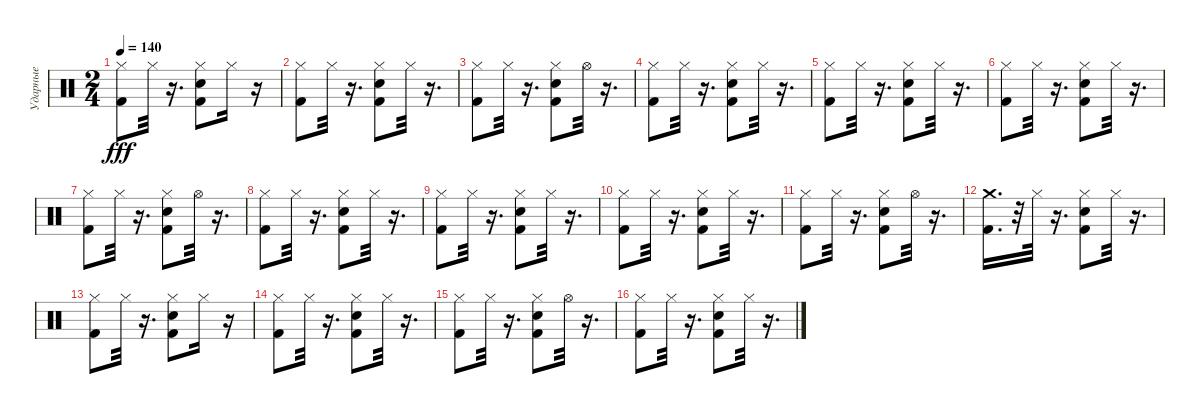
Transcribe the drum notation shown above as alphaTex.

\track ("Ударные" "Ударные") {instrument percussion}
\staff {score}
\articulation defaults
\ts (2 4)
\tempo 140
\clef neutral
\ks c
("Kick (hit) 2" "Hi-Hat (closed)").8{dy fff} "Hi-Hat (closed)".32 r.16{d} ("Snare (hit) 2" "Kick (hit) 2" "Hi-Hat (closed)").8 "Hi-Hat (closed)".16 r.16 |
("Kick (hit) 2" "Hi-Hat (closed)").8 "Hi-Hat (closed)".32 r.16{d} ("Snare (hit) 2" "Kick (hit) 2" "Hi-Hat (closed)").8 "Hi-Hat (closed)".32 r.16{d} |
("Kick (hit) 2" "Hi-Hat (closed)").8 "Hi-Hat (closed)".32 r.16{d} ("Kick (hit) 2" "Snare (hit) 2" "Hi-Hat (closed)").8 "Hi-Hat (open)".32 r.16{d} |
("Kick (hit) 2" "Hi-Hat (closed)").8 "Hi-Hat (closed)".32 r.16{d} ("Snare (hit) 2" "Kick (hit) 2" "Hi-Hat (closed)").8 "Hi-Hat (closed)".32 r.16{d} |
("Kick (hit) 2" "Hi-Hat (closed)").8 "Hi-Hat (closed)".32 r.16{d} ("Snare (hit) 2" "Kick (hit) 2" "Hi-Hat (closed)").8 "Hi-Hat (closed)".32 r.16{d} |
("Kick (hit) 2" "Hi-Hat (closed)").8 "Hi-Hat (closed)".32 r.16{d} ("Kick (hit) 2" "Hi-Hat (closed)" "Snare (hit) 2").8 "Hi-Hat (closed)".32 r.16{d} |
("Kick (hit) 2" "Hi-Hat (closed)").8 "Hi-Hat (closed)".32 r.16{d} ("Snare (hit) 2" "Kick (hit) 2" "Hi-Hat (closed)").8 "Hi-Hat (open)".32 r.16{d} |
("Kick (hit) 2" "Hi-Hat (closed)").8 "Hi-Hat (closed)".32 r.16{d} ("Snare (hit) 2" "Kick (hit) 2" "Hi-Hat (closed)").8 "Hi-Hat (closed)".32 r.16{d} |
("Kick (hit) 2" "Hi-Hat (closed)").8 "Hi-Hat (closed)".32 r.16{d} ("Snare (hit) 2" "Kick (hit) 2" "Hi-Hat (closed)").8 "Hi-Hat (closed)".32 r.16{d} |
("Kick (hit) 2" "Hi-Hat (closed)").8 "Hi-Hat (closed)".32 r.16{d} ("Snare (hit) 2" "Kick (hit) 2" "Hi-Hat (closed)").8 "Hi-Hat (closed)".32 r.16{d} |
("Kick (hit) 2" "Hi-Hat (closed)").8 "Hi-Hat (closed)".32 r.16{d} ("Snare (hit) 2" "Kick (hit) 2" "Hi-Hat (closed)").8 "Hi-Hat (open)".32 r.16{d} |
("Crash medium (hit)" "Kick (hit) 2").16{d} r.32 "Hi-Hat (closed)".32 r.16{d} ("Snare (hit) 2" "Hi-Hat (closed)" "Kick (hit) 2").8 "Hi-Hat (closed)".32 r.16{d} |
("Kick (hit) 2" "Hi-Hat (closed)").8 "Hi-Hat (closed)".32 r.16{d} ("Snare (hit) 2" "Kick (hit) 2" "Hi-Hat (closed)").8 "Hi-Hat (closed)".16 r.16 |
("Kick (hit) 2" "Hi-Hat (closed)").8 "Hi-Hat (closed)".32 r.16{d} ("Snare (hit) 2" "Kick (hit) 2" "Hi-Hat (closed)").8 "Hi-Hat (closed)".32 r.16{d} |
("Kick (hit) 2" "Hi-Hat (closed)").8 "Hi-Hat (closed)".32 r.16{d} ("Kick (hit) 2" "Snare (hit) 2" "Hi-Hat (closed)").8 "Hi-Hat (open)".32 r.16{d} |
("Kick (hit) 2" "Hi-Hat (closed)").8 "Hi-Hat (closed)".32 r.16{d} ("Hi-Hat (closed)" "Snare (hit) 2" "Kick (hit) 2").8 "Hi-Hat (closed)".32 r.16{d}
